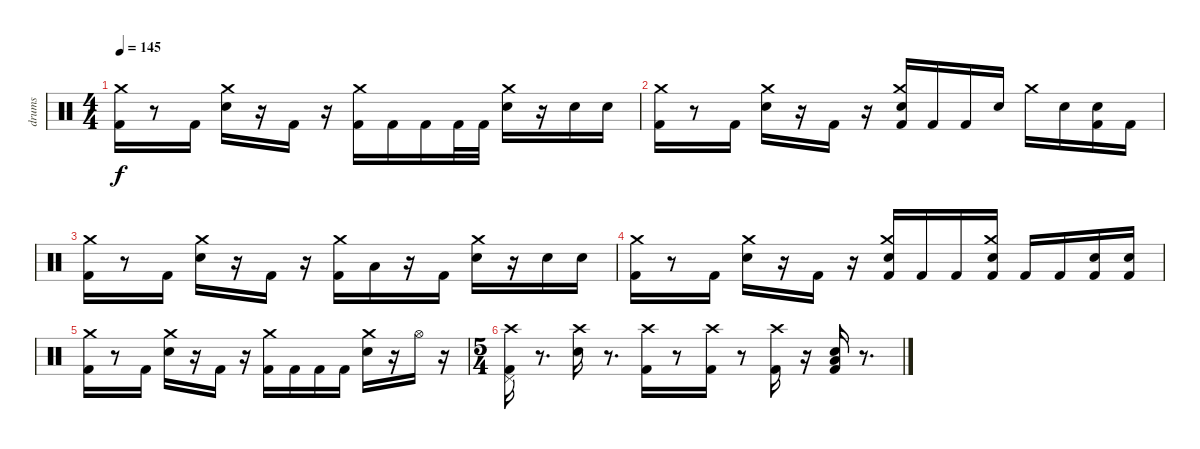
\track ("drums" "drums") {instrument percussion}
\staff {score}
\articulation defaults
\ts (4 4)
\tempo 145
\clef neutral
\ks c
("Kick (hit) 2" "Crash medium (hit)").16{dy f} r.8 "Kick (hit) 2".16 ("Snare (hit) 2" "Crash medium (hit)").16 r.16 "Kick (hit) 2".16 r.16 ("Kick (hit) 2" "Crash medium (hit)").16 "Kick (hit) 2".16 "Kick (hit) 2".16 "Kick (hit) 2".32 "Kick (hit) 2".32 ("Snare (hit) 2" "Crash medium (hit)").16 r.16 "Snare (hit) 2".16 "Snare (hit) 2".16 |
("Kick (hit) 2" "Crash medium (hit)").16 r.8 "Kick (hit) 2".16 ("Snare (hit) 2" "Crash medium (hit)").16 r.16 "Kick (hit) 2".16 r.16 ("Kick (hit) 2" "Snare (hit) 2" "Crash medium (hit)").16 "Kick (hit) 2".16 "Kick (hit) 2".16 "Snare (hit) 2".16 "Crash medium (hit)".16 "Snare (hit) 2".16 ("Kick (hit) 2" "Snare (hit) 2").16 "Kick (hit) 2".16 |
("Kick (hit) 2" "Crash medium (hit)").16 r.8 "Kick (hit) 2".16 ("Snare (hit) 2" "Crash medium (hit)").16 r.16 "Kick (hit) 2".16 r.16 ("Kick (hit) 2" "Crash medium (hit)").16 "Low Tom (hit)".16 r.16 "Kick (hit) 2".16 ("Snare (hit) 2" "Crash medium (hit)").16 r.16 "Snare (hit) 2".16 "Snare (hit) 2".16 |
("Kick (hit) 2" "Crash medium (hit)").16 r.8 "Kick (hit) 2".16 ("Snare (hit) 2" "Crash medium (hit)").16 r.16 "Kick (hit) 2".16 r.16 ("Kick (hit) 2" "Snare (hit) 2" "Crash medium (hit)").16 "Kick (hit) 2".16 "Kick (hit) 2".16 ("Kick (hit) 2" "Snare (hit) 2" "Crash medium (hit)").16 "Kick (hit) 2".16 "Kick (hit) 2".16 ("Kick (hit) 2" "Snare (hit) 2").16 ("Kick (hit) 2" "Snare (hit) 2").16 |
("Kick (hit) 2" "Crash medium (hit)").16 r.8 "Kick (hit) 2".16 ("Snare (hit) 2" "Crash medium (hit)").16 r.16 "Kick (hit) 2".16 r.16 ("Kick (hit) 2" "Crash medium (hit)").16 "Kick (hit) 2".16 "Kick (hit) 2".16 "Kick (hit) 2".16 ("Snare (hit) 2" "Crash medium (hit)").16 r.16 "Hi-Hat (open)".16 r.16 |
\ts (5 4)
("Kick (hit) 2" "Pedal Hi-Hat (hit)" "Crash high (hit)").16 r.8{d} ("Snare (hit) 2" "Crash high (hit)").16 r.8{d} ("Kick (hit) 2" "Crash high (hit)").16 r.8 ("Kick (hit) 2" "Crash high (hit)").16 r.8 ("Kick (hit) 2" "Crash high (hit)").16 r.16 ("Kick (hit) 2" "Snare (hit) 2" "Low Tom (hit)").16 r.8{d}
